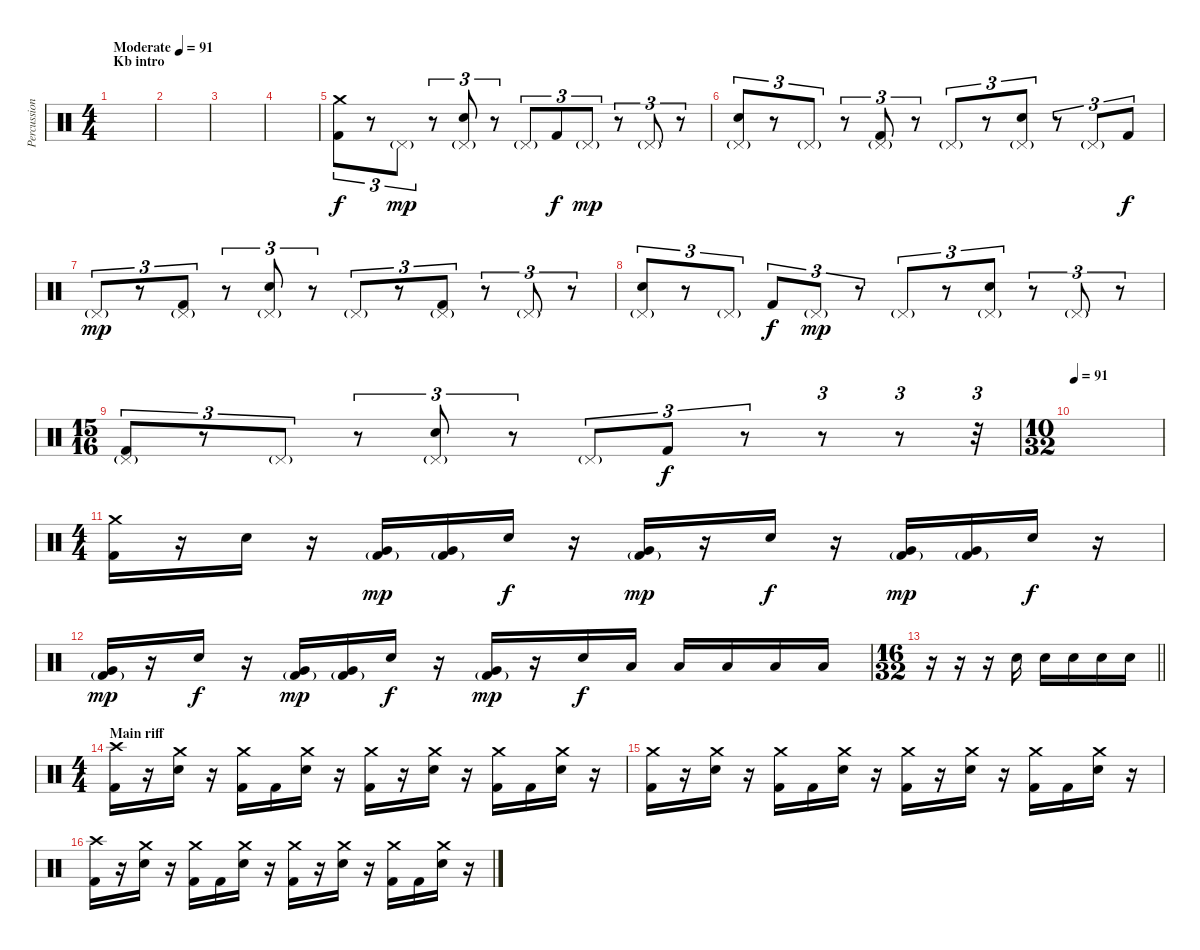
\track ("Percussion" "Percussion") {instrument percussion}
\staff {score}
\articulation defaults
\ts (4 4)
\section ("" "Kb intro")
\tempo (91 "Moderate")
\tempo 125
\tempo (91 "Moderate")
\clef neutral
\ks c
|
|
|
|
("Crash medium (hit)" "Kick (hit) 2").8{tu (3 2)} r.8{tu (3 2)} "Pedal Hi-Hat (hit)"{g}.8{tu (3 2) dy mp} r.8{tu (3 2)} ("Pedal Hi-Hat (hit)"{g} "Electric Snare (hit)").8{tu (3 2)} r.8{tu (3 2)} "Pedal Hi-Hat (hit)"{g}.8{tu (3 2)} "Kick (hit) 2".8{tu (3 2) dy f} "Pedal Hi-Hat (hit)"{g}.8{tu (3 2) dy mp} r.8{tu (3 2)} "Pedal Hi-Hat (hit)"{g}.8{tu (3 2)} r.8{tu (3 2)} |
("Pedal Hi-Hat (hit)"{g} "Electric Snare (hit)").8{tu (3 2)} r.8{tu (3 2)} "Pedal Hi-Hat (hit)"{g}.8{tu (3 2)} r.8{tu (3 2)} ("Pedal Hi-Hat (hit)"{g} "Kick (hit) 2").8{tu (3 2)} r.8{tu (3 2)} "Pedal Hi-Hat (hit)"{g}.8{tu (3 2)} r.8{tu (3 2)} ("Pedal Hi-Hat (hit)"{g} "Electric Snare (hit)").8{tu (3 2)} r.8{tu (3 2)} "Pedal Hi-Hat (hit)"{g}.8{tu (3 2)} "Kick (hit) 2".8{tu (3 2) dy f} |
"Pedal Hi-Hat (hit)"{g}.8{tu (3 2) dy mp} r.8{tu (3 2)} ("Pedal Hi-Hat (hit)"{g} "Kick (hit) 2").8{tu (3 2)} r.8{tu (3 2)} ("Pedal Hi-Hat (hit)"{g} "Electric Snare (hit)").8{tu (3 2)} r.8{tu (3 2)} "Pedal Hi-Hat (hit)"{g}.8{tu (3 2)} r.8{tu (3 2)} ("Pedal Hi-Hat (hit)"{g} "Kick (hit) 2").8{tu (3 2)} r.8{tu (3 2)} "Pedal Hi-Hat (hit)"{g}.8{tu (3 2)} r.8{tu (3 2)} |
("Pedal Hi-Hat (hit)"{g} "Electric Snare (hit)").8{tu (3 2)} r.8{tu (3 2)} "Pedal Hi-Hat (hit)"{g}.8{tu (3 2)} "Kick (hit) 2".8{tu (3 2) dy f} "Pedal Hi-Hat (hit)"{g}.8{tu (3 2) dy mp} r.8{tu (3 2)} "Pedal Hi-Hat (hit)"{g}.8{tu (3 2)} r.8{tu (3 2)} ("Pedal Hi-Hat (hit)"{g} "Electric Snare (hit)").8{tu (3 2)} r.8{tu (3 2)} "Pedal Hi-Hat (hit)"{g}.8{tu (3 2)} r.8{tu (3 2)} |
\ts (15 16)
("Pedal Hi-Hat (hit)"{g} "Kick (hit) 2").8{tu (3 2)} r.8{tu (3 2)} "Pedal Hi-Hat (hit)"{g}.8{tu (3 2)} r.8{tu (3 2)} ("Pedal Hi-Hat (hit)"{g} "Electric Snare (hit)").8{tu (3 2)} r.8{tu (3 2)} "Pedal Hi-Hat (hit)"{g}.8{tu (3 2)} "Kick (hit) 2".8{tu (3 2) dy f} r.8{tu (3 2)} r.8{tu (3 2)} r.8{tu (3 2)} r.32{tu (3 2)} |
\ts (10 32)
\tempo 91
|
\ts (4 4)
("Crash medium (hit)" "Kick (hit) 2").16 r.16 "Electric Snare (hit)".16 r.16 ("Very Low Tom (hit)" "Kick (hit) 2"{g}).16{dy mp} ("Very Low Tom (hit)" "Kick (hit) 2"{g}).16 "Electric Snare (hit)".16{dy f} r.16 ("Very Low Tom (hit)" "Kick (hit) 2"{g}).16{dy mp} r.16 "Electric Snare (hit)".16{dy f} r.16 ("Very Low Tom (hit)" "Kick (hit) 2"{g}).16{dy mp} ("Very Low Tom (hit)" "Kick (hit) 2"{g}).16 "Electric Snare (hit)".16{dy f} r.16 |
("Very Low Tom (hit)" "Kick (hit) 2"{g}).16{dy mp} r.16 "Electric Snare (hit)".16{dy f} r.16 ("Very Low Tom (hit)" "Kick (hit) 2"{g}).16{dy mp} ("Very Low Tom (hit)" "Kick (hit) 2"{g}).16 "Electric Snare (hit)".16{dy f} r.16 ("Very Low Tom (hit)" "Kick (hit) 2"{g}).16{dy mp} r.16 "Electric Snare (hit)".16{dy f} "Low Tom (hit)".16 "Low Tom (hit)".16 "Low Tom (hit)".16 "Low Tom (hit)".16 "Low Tom (hit)".16 |
\ts (16 32)
\barLineRight lightlight
r.16 r.16 r.16 "Electric Snare (hit)".16 "Electric Snare (hit)".16 "Electric Snare (hit)".16 "Electric Snare (hit)".16 "Electric Snare (hit)".16 |
\ts (4 4)
\section ("" "Main riff")
("Crash high (hit)" "Kick (hit) 2").16 r.16 ("Crash medium (hit)" "Electric Snare (hit)").16 r.16 ("Crash medium (hit)" "Kick (hit) 2").16 "Kick (hit) 2".16 ("Crash medium (hit)" "Electric Snare (hit)").16 r.16 ("Crash medium (hit)" "Kick (hit) 2").16 r.16 ("Crash medium (hit)" "Electric Snare (hit)").16 r.16 ("Crash medium (hit)" "Kick (hit) 2").16 "Kick (hit) 2".16 ("Crash medium (hit)" "Electric Snare (hit)").16 r.16 |
("Crash medium (hit)" "Kick (hit) 2").16 r.16 ("Crash medium (hit)" "Electric Snare (hit)").16 r.16 ("Crash medium (hit)" "Kick (hit) 2").16 "Kick (hit) 2".16 ("Crash medium (hit)" "Electric Snare (hit)").16 r.16 ("Crash medium (hit)" "Kick (hit) 2").16 r.16 ("Crash medium (hit)" "Electric Snare (hit)").16 r.16 ("Crash medium (hit)" "Kick (hit) 2").16 "Kick (hit) 2".16 ("Crash medium (hit)" "Electric Snare (hit)").16 r.16 |
("Crash high (hit)" "Kick (hit) 2").16 r.16 ("Crash medium (hit)" "Electric Snare (hit)").16 r.16 ("Crash medium (hit)" "Kick (hit) 2").16 "Kick (hit) 2".16 ("Crash medium (hit)" "Electric Snare (hit)").16 r.16 ("Crash medium (hit)" "Kick (hit) 2").16 r.16 ("Crash medium (hit)" "Electric Snare (hit)").16 r.16 ("Crash medium (hit)" "Kick (hit) 2").16 "Kick (hit) 2".16 ("Crash medium (hit)" "Electric Snare (hit)").16 r.16
